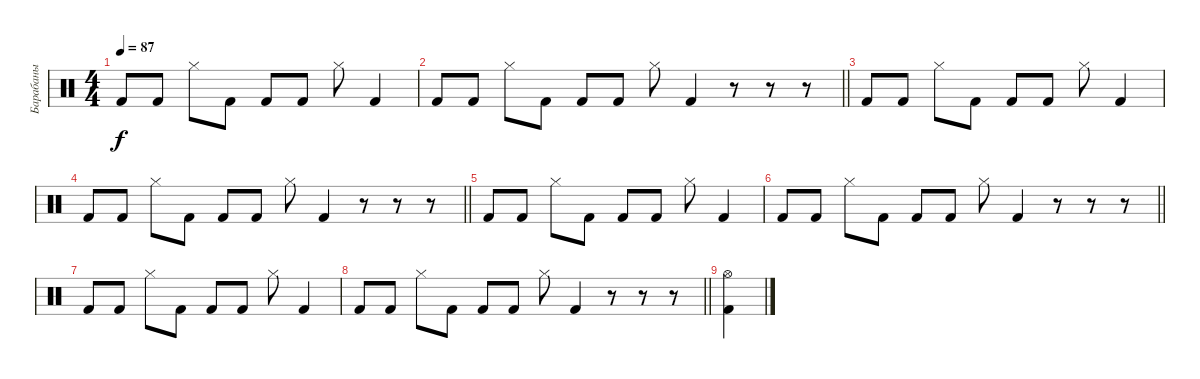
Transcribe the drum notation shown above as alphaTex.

\track ("Барабаны" "Барабаны") {instrument percussion}
\staff {score}
\articulation defaults
\ts (4 4)
\tempo 87
\clef neutral
\ks c "Kick (hit) 2".8{dy f} "Kick (hit) 2".8 "Hi-Hat (closed)".8 "Kick (hit) 2".8 "Kick (hit) 2".8 "Kick (hit) 2".8 "Hi-Hat (closed)".8 "Kick (hit) 2".4
|
\barLineRight lightlight "Kick (hit) 2".8 "Kick (hit) 2".8 "Hi-Hat (closed)".8 "Kick (hit) 2".8 "Kick (hit) 2".8 "Kick (hit) 2".8 "Hi-Hat (closed)".8 "Kick (hit) 2".4
r.8 r.8 r.8 |
"Kick (hit) 2".8 "Kick (hit) 2".8 "Hi-Hat (closed)".8 "Kick (hit) 2".8 "Kick (hit) 2".8 "Kick (hit) 2".8 "Hi-Hat (closed)".8 "Kick (hit) 2".4 |
\barLineRight lightlight "Kick (hit) 2".8 "Kick (hit) 2".8 "Hi-Hat (closed)".8 "Kick (hit) 2".8 "Kick (hit) 2".8 "Kick (hit) 2".8 "Hi-Hat (closed)".8 "Kick (hit) 2".4
r.8 r.8 r.8 |
"Kick (hit) 2".8 "Kick (hit) 2".8 "Hi-Hat (closed)".8 "Kick (hit) 2".8 "Kick (hit) 2".8 "Kick (hit) 2".8 "Hi-Hat (closed)".8 "Kick (hit) 2".4 |
\barLineRight lightlight "Kick (hit) 2".8 "Kick (hit) 2".8 "Hi-Hat (closed)".8 "Kick (hit) 2".8 "Kick (hit) 2".8 "Kick (hit) 2".8 "Hi-Hat (closed)".8 "Kick (hit) 2".4
r.8 r.8 r.8 |
"Kick (hit) 2".8 "Kick (hit) 2".8 "Hi-Hat (closed)".8 "Kick (hit) 2".8 "Kick (hit) 2".8 "Kick (hit) 2".8 "Hi-Hat (closed)".8 "Kick (hit) 2".4 |
\barLineRight lightlight "Kick (hit) 2".8 "Kick (hit) 2".8 "Hi-Hat (closed)".8 "Kick (hit) 2".8 "Kick (hit) 2".8 "Kick (hit) 2".8 "Hi-Hat (closed)".8 "Kick (hit) 2".4
r.8 r.8 r.8 |
("Kick (hit) 2" "Hi-Hat (open)").4
